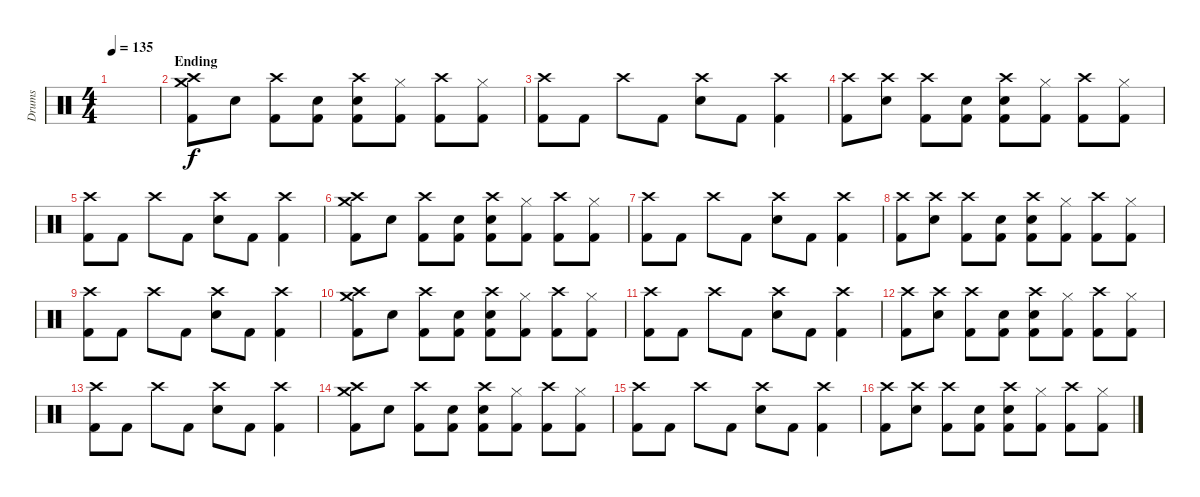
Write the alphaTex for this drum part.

\track ("Drums" "Drums") {instrument percussion}
\staff {score}
\articulation defaults
\ts (4 4)
\tempo 135
\clef neutral
\ks c
|
\section ("" "Ending")
("Crash high (hit)" "Crash medium (hit)" "Kick (hit) 2").8 "Snare (hit)"{x}.8 ("Crash high (hit)" "Kick (hit) 2"{x}).8 ("Electric Snare (hit)"{x} "Kick (hit) 2").8 ("Crash high (hit)" "Electric Snare (hit)" "Kick (hit) 2"{x}).8 ("Hi-Hat (closed)"{x} "Kick (hit) 2"{x}).8 ("Crash high (hit)" "Kick (hit) 2").8 ("Hi-Hat (closed)"{x} "Kick (hit) 2").8 |
("Crash high (hit)" "Kick (hit) 2"{x}).8 "Kick (hit) 2"{x}.8 "Crash high (hit)".8 "Kick (hit) 2".8 ("Crash high (hit)" "Electric Snare (hit)").8 "Kick (hit) 2".8 ("Crash high (hit)" "Kick (hit) 2"{x}).4 |
("Crash high (hit)" "Kick (hit) 2").8 ("Crash high (hit)"{x} "Snare (hit)"{x}).8 ("Crash high (hit)" "Kick (hit) 2"{x}).8 ("Electric Snare (hit)"{x} "Kick (hit) 2").8 ("Crash high (hit)" "Electric Snare (hit)" "Kick (hit) 2"{x}).8 ("Hi-Hat (closed)"{x} "Kick (hit) 2"{x}).8 ("Crash high (hit)" "Kick (hit) 2").8 ("Hi-Hat (closed)"{x} "Kick (hit) 2").8 |
("Crash high (hit)" "Kick (hit) 2"{x}).8 "Kick (hit) 2"{x}.8 "Crash high (hit)".8 "Kick (hit) 2".8 ("Crash high (hit)" "Electric Snare (hit)").8 "Kick (hit) 2".8 ("Crash high (hit)" "Kick (hit) 2"{x}).4 |
("Crash high (hit)" "Crash medium (hit)" "Kick (hit) 2").8 "Snare (hit)"{x}.8 ("Crash high (hit)" "Kick (hit) 2"{x}).8 ("Electric Snare (hit)"{x} "Kick (hit) 2").8 ("Crash high (hit)" "Electric Snare (hit)" "Kick (hit) 2"{x}).8 ("Hi-Hat (closed)"{x} "Kick (hit) 2"{x}).8 ("Crash high (hit)" "Kick (hit) 2").8 ("Hi-Hat (closed)"{x} "Kick (hit) 2").8 |
("Crash high (hit)" "Kick (hit) 2"{x}).8 "Kick (hit) 2"{x}.8 "Crash high (hit)".8 "Kick (hit) 2".8 ("Crash high (hit)" "Electric Snare (hit)").8 "Kick (hit) 2".8 ("Crash high (hit)" "Kick (hit) 2"{x}).4 |
("Crash high (hit)" "Kick (hit) 2").8 ("Crash high (hit)"{x} "Snare (hit)"{x}).8 ("Crash high (hit)" "Kick (hit) 2"{x}).8 ("Electric Snare (hit)"{x} "Kick (hit) 2").8 ("Crash high (hit)" "Electric Snare (hit)" "Kick (hit) 2"{x}).8 ("Hi-Hat (closed)"{x} "Kick (hit) 2"{x}).8 ("Crash high (hit)" "Kick (hit) 2").8 ("Hi-Hat (closed)"{x} "Kick (hit) 2").8 |
("Crash high (hit)" "Kick (hit) 2"{x}).8 "Kick (hit) 2"{x}.8 "Crash high (hit)".8 "Kick (hit) 2".8 ("Crash high (hit)" "Electric Snare (hit)").8 "Kick (hit) 2".8 ("Crash high (hit)" "Kick (hit) 2"{x}).4 |
("Crash high (hit)" "Crash medium (hit)" "Kick (hit) 2").8 "Snare (hit)"{x}.8 ("Crash high (hit)" "Kick (hit) 2"{x}).8 ("Electric Snare (hit)"{x} "Kick (hit) 2").8 ("Crash high (hit)" "Electric Snare (hit)" "Kick (hit) 2"{x}).8 ("Hi-Hat (closed)"{x} "Kick (hit) 2"{x}).8 ("Crash high (hit)" "Kick (hit) 2").8 ("Hi-Hat (closed)"{x} "Kick (hit) 2").8 |
("Crash high (hit)" "Kick (hit) 2"{x}).8 "Kick (hit) 2"{x}.8 "Crash high (hit)".8 "Kick (hit) 2".8 ("Crash high (hit)" "Electric Snare (hit)").8 "Kick (hit) 2".8 ("Crash high (hit)" "Kick (hit) 2"{x}).4 |
("Crash high (hit)" "Kick (hit) 2").8 ("Crash high (hit)"{x} "Snare (hit)"{x}).8 ("Crash high (hit)" "Kick (hit) 2"{x}).8 ("Electric Snare (hit)"{x} "Kick (hit) 2").8 ("Crash high (hit)" "Electric Snare (hit)" "Kick (hit) 2"{x}).8 ("Hi-Hat (closed)"{x} "Kick (hit) 2"{x}).8 ("Crash high (hit)" "Kick (hit) 2").8 ("Hi-Hat (closed)"{x} "Kick (hit) 2").8 |
("Crash high (hit)" "Kick (hit) 2"{x}).8 "Kick (hit) 2"{x}.8 "Crash high (hit)".8 "Kick (hit) 2".8 ("Crash high (hit)" "Electric Snare (hit)").8 "Kick (hit) 2".8 ("Crash high (hit)" "Kick (hit) 2"{x}).4 |
("Crash high (hit)" "Crash medium (hit)" "Kick (hit) 2").8 "Snare (hit)"{x}.8 ("Crash high (hit)" "Kick (hit) 2"{x}).8 ("Electric Snare (hit)"{x} "Kick (hit) 2").8 ("Crash high (hit)" "Electric Snare (hit)" "Kick (hit) 2"{x}).8 ("Hi-Hat (closed)"{x} "Kick (hit) 2"{x}).8 ("Crash high (hit)" "Kick (hit) 2").8 ("Hi-Hat (closed)"{x} "Kick (hit) 2").8 |
("Crash high (hit)" "Kick (hit) 2"{x}).8 "Kick (hit) 2"{x}.8 "Crash high (hit)".8 "Kick (hit) 2".8 ("Crash high (hit)" "Electric Snare (hit)").8 "Kick (hit) 2".8 ("Crash high (hit)" "Kick (hit) 2"{x}).4 |
("Crash high (hit)" "Kick (hit) 2").8 ("Crash high (hit)"{x} "Snare (hit)"{x}).8 ("Crash high (hit)" "Kick (hit) 2"{x}).8 ("Electric Snare (hit)"{x} "Kick (hit) 2").8 ("Crash high (hit)" "Electric Snare (hit)" "Kick (hit) 2"{x}).8 ("Hi-Hat (closed)"{x} "Kick (hit) 2"{x}).8 ("Crash high (hit)" "Kick (hit) 2").8 ("Hi-Hat (closed)"{x} "Kick (hit) 2").8
